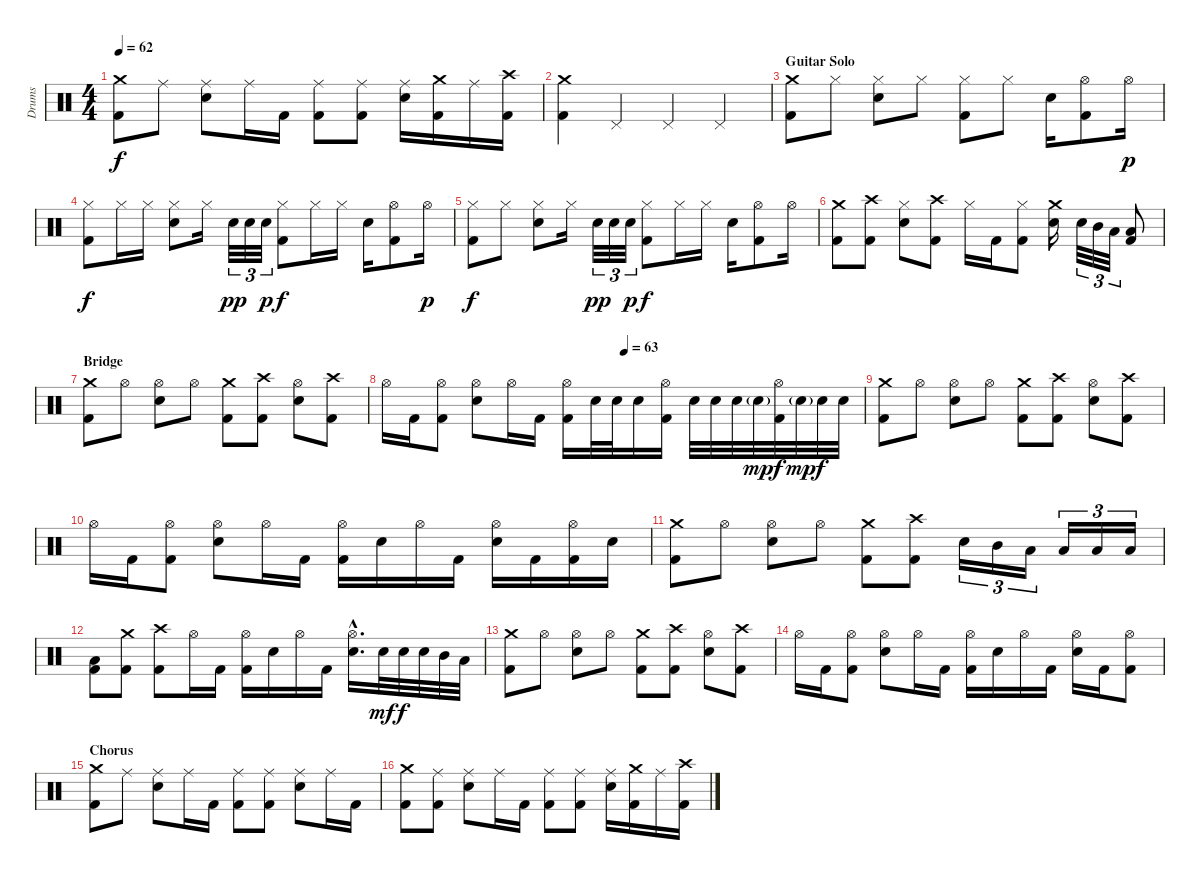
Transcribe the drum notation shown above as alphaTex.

\track ("Drums" "Drums") {instrument percussion}
\staff {score}
\articulation defaults
\ts (4 4)
\tempo 62
\clef neutral
\ks c
("Crash medium (hit)" "Kick (hit) 2").8{dy f} "Ride (middle)".8 ("Ride (middle)" "Electric Snare (hit)").8 "Ride (middle)".16 "Kick (hit) 2".16 ("Ride (middle)" "Kick (hit) 2").8 ("Ride (middle)" "Kick (hit) 2").8 ("Ride (middle)" "Electric Snare (hit)").16 ("Crash medium (hit)" "Kick (hit) 2").16 "Ride (middle)".16 ("Crash high (hit)" "Kick (hit) 2").16 |
("Crash medium (hit)" "Kick (hit) 2").4 "Pedal Hi-Hat (hit)".4 "Pedal Hi-Hat (hit)".4 "Pedal Hi-Hat (hit)".4 |
\section ("" "Guitar Solo")
("Crash medium (hit)" "Kick (hit) 2").8 "Hi-Hat (closed)".8 ("Hi-Hat (closed)" "Electric Snare (hit)").8 "Hi-Hat (closed)".8 ("Hi-Hat (closed)" "Kick (hit) 2").8 "Hi-Hat (closed)".8 "Electric Snare (hit)".16 ("Hi-Hat (open)" "Kick (hit) 2").8 "Hi-Hat (open)".16{dy p} |
("Hi-Hat (closed)" "Kick (hit) 2").8{dy f} "Hi-Hat (closed)".16 "Hi-Hat (closed)".16 ("Hi-Hat (closed)" "Electric Snare (hit)").8 "Hi-Hat (closed)".16 "Electric Snare (hit)".32{tu (3 2) dy pp} "Electric Snare (hit)".32{tu (3 2)} "Electric Snare (hit)".32{tu (3 2) dy p} ("Hi-Hat (closed)" "Kick (hit) 2").8{dy f} "Hi-Hat (closed)".16 "Hi-Hat (closed)".16 "Electric Snare (hit)".16 ("Hi-Hat (open)" "Kick (hit) 2").8 "Hi-Hat (open)".16{dy p} |
("Hi-Hat (closed)" "Kick (hit) 2").8{dy f} "Hi-Hat (closed)".8 ("Hi-Hat (closed)" "Electric Snare (hit)").8 "Hi-Hat (closed)".16 "Electric Snare (hit)".32{tu (3 2) dy pp} "Electric Snare (hit)".32{tu (3 2)} "Electric Snare (hit)".32{tu (3 2) dy p} ("Hi-Hat (closed)" "Kick (hit) 2").8{dy f} "Hi-Hat (closed)".16 "Hi-Hat (closed)".16 "Electric Snare (hit)".16 ("Hi-Hat (open)" "Kick (hit) 2").8 "Hi-Hat (open)".16 |
("Crash medium (hit)" "Kick (hit) 2").8 ("Crash high (hit)" "Kick (hit) 2").8 ("Hi-Hat (closed)" "Electric Snare (hit)").8 ("Crash high (hit)" "Kick (hit) 2").8 "Hi-Hat (closed)".16 "Kick (hit) 2".16 ("Hi-Hat (closed)" "Kick (hit) 2").8 ("Crash medium (hit)" "Electric Snare (hit)").16 "Electric Snare (hit)".32{tu (3 2)} "Mid Tom (hit)".32{tu (3 2)} "Low Tom (hit)".32{tu (3 2)} ("Low Floor Tom (hit)" "Kick (hit) 2").8 |
\section ("" "Bridge")
("Crash medium (hit)" "Kick (hit) 2").8 "Hi-Hat (open)".8 ("Hi-Hat (open)" "Electric Snare (hit)").8 "Hi-Hat (open)".8 ("Crash medium (hit)" "Kick (hit) 2").8 ("Crash high (hit)" "Kick (hit) 2").8 ("Hi-Hat (open)" "Electric Snare (hit)").8 ("Crash high (hit)" "Kick (hit) 2").8 |
\tempo (63 0.5)
"Hi-Hat (open)".16 "Kick (hit) 2".16 ("Hi-Hat (open)" "Kick (hit) 2").8 ("Hi-Hat (open)" "Electric Snare (hit)").8 "Hi-Hat (open)".16 "Kick (hit) 2".16 ("Hi-Hat (open)" "Kick (hit) 2").16 "Electric Snare (hit)".32 "Electric Snare (hit)".32 "Electric Snare (hit)".16 ("Hi-Hat (open)" "Kick (hit) 2").16 "Electric Snare (hit)".32 "Electric Snare (hit)".32 "Electric Snare (hit)".32 "Electric Snare (hit)"{g}.32{dy mp} ("Hi-Hat (open)" "Kick (hit) 2").32{dy f} "Electric Snare (hit)"{g}.32{dy mp} "Electric Snare (hit)".32{dy f} "Electric Snare (hit)".32 |
("Crash medium (hit)" "Kick (hit) 2").8 "Hi-Hat (open)".8 ("Hi-Hat (open)" "Electric Snare (hit)").8 "Hi-Hat (open)".8 ("Crash medium (hit)" "Kick (hit) 2").8 ("Crash high (hit)" "Kick (hit) 2").8 ("Hi-Hat (open)" "Electric Snare (hit)").8 ("Crash high (hit)" "Kick (hit) 2").8 |
"Hi-Hat (open)".16 "Kick (hit) 2".16 ("Hi-Hat (open)" "Kick (hit) 2").8 ("Hi-Hat (open)" "Electric Snare (hit)").8 "Hi-Hat (open)".16 "Kick (hit) 2".16 ("Hi-Hat (open)" "Kick (hit) 2").16 "Electric Snare (hit)".16 "Hi-Hat (open)".16 "Kick (hit) 2".16 ("Hi-Hat (open)" "Electric Snare (hit)").16 "Kick (hit) 2".16 ("Hi-Hat (open)" "Kick (hit) 2").16 "Electric Snare (hit)".16 |
("Crash medium (hit)" "Kick (hit) 2").8 "Hi-Hat (open)".8 ("Hi-Hat (open)" "Electric Snare (hit)").8 "Hi-Hat (open)".8 ("Crash medium (hit)" "Kick (hit) 2").8 ("Crash high (hit)" "Kick (hit) 2").8 "Electric Snare (hit)".16{tu (3 2)} "Mid Tom (hit)".16{tu (3 2)} "Low Tom (hit)".16{tu (3 2)} "Low Tom (hit)".16{tu (3 2)} "Low Floor Tom (hit)".16{tu (3 2)} "Low Floor Tom (hit)".16{tu (3 2)} |
("Low Floor Tom (hit)" "Kick (hit) 2").8 ("Crash medium (hit)" "Kick (hit) 2").8 ("Crash high (hit)" "Kick (hit) 2").8 "Hi-Hat (open)".16 "Kick (hit) 2".16 ("Hi-Hat (open)" "Kick (hit) 2").16 "Electric Snare (hit)".16 "Hi-Hat (open)".16 "Kick (hit) 2".16 ("Hi-Hat (open)"{hac} "Electric Snare (hit)"{hac}).16{d} "Electric Snare (hit)".32{dy mf} "Electric Snare (hit)".32{dy f} "Electric Snare (hit)".32 "Mid Tom (hit)".32 "Low Floor Tom (hit)".32 |
("Crash medium (hit)" "Kick (hit) 2").8 "Hi-Hat (open)".8 ("Hi-Hat (open)" "Electric Snare (hit)").8 "Hi-Hat (open)".8 ("Crash medium (hit)" "Kick (hit) 2").8 ("Crash high (hit)" "Kick (hit) 2").8 ("Hi-Hat (open)" "Electric Snare (hit)").8 ("Crash high (hit)" "Kick (hit) 2").8 |
"Hi-Hat (open)".16 "Kick (hit) 2".16 ("Hi-Hat (open)" "Kick (hit) 2").8 ("Hi-Hat (open)" "Electric Snare (hit)").8 "Hi-Hat (open)".16 "Kick (hit) 2".16 ("Hi-Hat (open)" "Kick (hit) 2").16 "Electric Snare (hit)".16 "Hi-Hat (open)".16 "Kick (hit) 2".16 ("Hi-Hat (open)" "Electric Snare (hit)").16 "Kick (hit) 2".16 ("Hi-Hat (open)" "Kick (hit) 2").8 |
\section ("" "Chorus")
("Crash medium (hit)" "Kick (hit) 2").8 "Ride (middle)".8 ("Ride (middle)" "Electric Snare (hit)").8 "Ride (middle)".16 "Kick (hit) 2".16 ("Ride (middle)" "Kick (hit) 2").8 ("Ride (middle)" "Kick (hit) 2").8 ("Ride (middle)" "Electric Snare (hit)").8 "Ride (middle)".16 "Kick (hit) 2".16 |
("Crash medium (hit)" "Kick (hit) 2").8 ("Ride (middle)" "Kick (hit) 2").8 ("Ride (middle)" "Electric Snare (hit)").8 "Ride (middle)".16 "Kick (hit) 2".16 ("Ride (middle)" "Kick (hit) 2").8 ("Ride (middle)" "Kick (hit) 2").8 ("Ride (middle)" "Electric Snare (hit)").16 ("Crash medium (hit)" "Kick (hit) 2").16 "Ride (middle)".16 ("Crash high (hit)" "Kick (hit) 2").16
